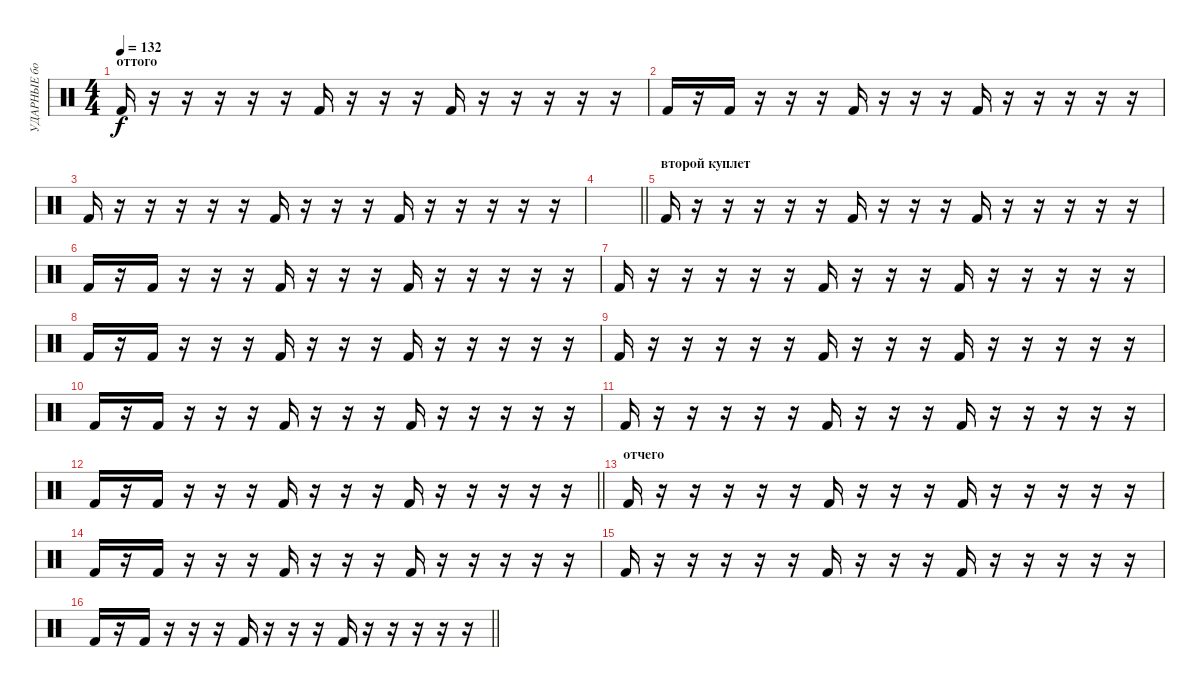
\track ("УДАРНЫЕ бочка" "УДАРНЫЕ бо") {instrument percussion}
\staff {score}
\articulation defaults
\ts (4 4)
\section ("" "оттого")
\tempo 132
\clef neutral
\ks c "Kick (hit) 2".16{dy f}
r.16 r.16 r.16 r.16 r.16 "Kick (hit) 2".16 r.16 r.16 r.16 "Kick (hit) 2".16 r.16 r.16 r.16 r.16 r.16 |
"Kick (hit) 2".16 r.16 "Kick (hit) 2".16 r.16 r.16 r.16 "Kick (hit) 2".16 r.16 r.16 r.16 "Kick (hit) 2".16 r.16 r.16 r.16 r.16 r.16 |
"Kick (hit) 2".16 r.16 r.16 r.16 r.16 r.16 "Kick (hit) 2".16 r.16 r.16 r.16 "Kick (hit) 2".16 r.16 r.16 r.16 r.16 r.16 |
\barLineRight lightlight
|
\section ("" "второй куплет")
"Kick (hit) 2".16 r.16 r.16 r.16 r.16 r.16 "Kick (hit) 2".16 r.16 r.16 r.16 "Kick (hit) 2".16 r.16 r.16 r.16 r.16 r.16 |
"Kick (hit) 2".16 r.16 "Kick (hit) 2".16 r.16 r.16 r.16 "Kick (hit) 2".16 r.16 r.16 r.16 "Kick (hit) 2".16 r.16 r.16 r.16 r.16 r.16 |
"Kick (hit) 2".16 r.16 r.16 r.16 r.16 r.16 "Kick (hit) 2".16 r.16 r.16 r.16 "Kick (hit) 2".16 r.16 r.16 r.16 r.16 r.16 |
"Kick (hit) 2".16 r.16 "Kick (hit) 2".16 r.16 r.16 r.16 "Kick (hit) 2".16 r.16 r.16 r.16 "Kick (hit) 2".16 r.16 r.16 r.16 r.16 r.16 |
"Kick (hit) 2".16 r.16 r.16 r.16 r.16 r.16 "Kick (hit) 2".16 r.16 r.16 r.16 "Kick (hit) 2".16 r.16 r.16 r.16 r.16 r.16 |
"Kick (hit) 2".16 r.16 "Kick (hit) 2".16 r.16 r.16 r.16 "Kick (hit) 2".16 r.16 r.16 r.16 "Kick (hit) 2".16 r.16 r.16 r.16 r.16 r.16 |
"Kick (hit) 2".16 r.16 r.16 r.16 r.16 r.16 "Kick (hit) 2".16 r.16 r.16 r.16 "Kick (hit) 2".16 r.16 r.16 r.16 r.16 r.16 |
\barLineRight lightlight "Kick (hit) 2".16
r.16 "Kick (hit) 2".16 r.16 r.16 r.16 "Kick (hit) 2".16 r.16 r.16 r.16 "Kick (hit) 2".16 r.16 r.16 r.16 r.16 r.16 |
\section ("" "отчего")
"Kick (hit) 2".16 r.16 r.16 r.16 r.16 r.16 "Kick (hit) 2".16 r.16 r.16 r.16 "Kick (hit) 2".16 r.16 r.16 r.16 r.16 r.16 |
"Kick (hit) 2".16 r.16 "Kick (hit) 2".16 r.16 r.16 r.16 "Kick (hit) 2".16 r.16 r.16 r.16 "Kick (hit) 2".16 r.16 r.16 r.16 r.16 r.16 |
"Kick (hit) 2".16 r.16 r.16 r.16 r.16 r.16 "Kick (hit) 2".16 r.16 r.16 r.16 "Kick (hit) 2".16 r.16 r.16 r.16 r.16 r.16 |
\barLineRight lightlight "Kick (hit) 2".16
r.16 "Kick (hit) 2".16 r.16 r.16 r.16 "Kick (hit) 2".16 r.16 r.16 r.16 "Kick (hit) 2".16 r.16 r.16 r.16 r.16 r.16
